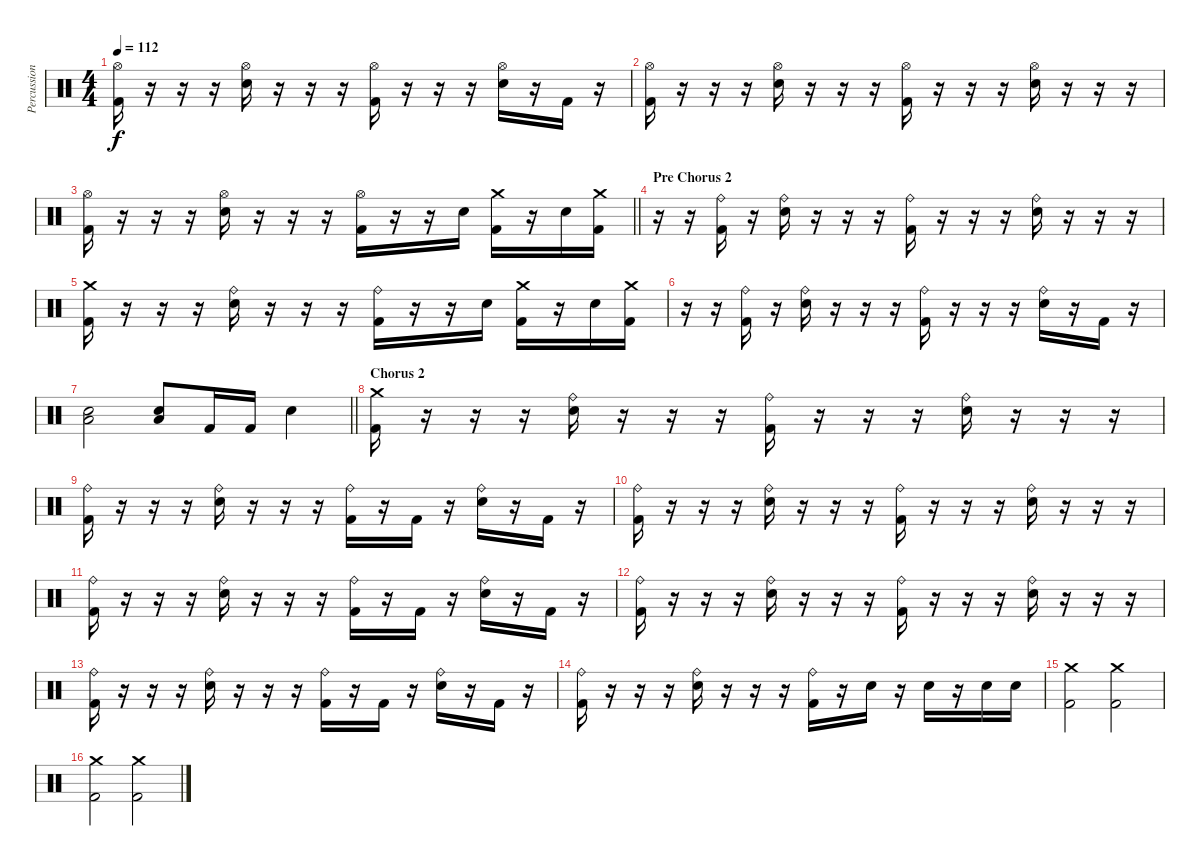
\track ("Percussioni" "Percussion") {instrument percussion}
\staff {score}
\articulation defaults
\ts (4 4)
\tempo 112
\clef neutral
\ks c
("Kick (hit) 2" "Hi-Hat (open)").16{dy f} r.16 r.16 r.16 ("Snare (hit) 2" "Hi-Hat (open)").16 r.16 r.16 r.16 ("Kick (hit) 2" "Hi-Hat (open)").16 r.16 r.16 r.16 ("Snare (hit) 2" "Hi-Hat (open)").16 r.16 "Kick (hit) 2".16 r.16 |
("Kick (hit) 2" "Hi-Hat (open)").16 r.16 r.16 r.16 ("Snare (hit) 2" "Hi-Hat (open)").16 r.16 r.16 r.16 ("Kick (hit) 2" "Hi-Hat (open)").16 r.16 r.16 r.16 ("Snare (hit) 2" "Hi-Hat (open)").16 r.16 r.16 r.16 |
\barLineRight lightlight
("Kick (hit) 2" "Hi-Hat (open)").16 r.16 r.16 r.16 ("Snare (hit) 2" "Hi-Hat (open)").16 r.16 r.16 r.16 ("Kick (hit) 2" "Hi-Hat (open)").16 r.16 r.16 "Snare (hit) 2".16 ("Kick (hit) 2" "Crash medium (hit)").16 r.16 "Snare (hit) 2".16 ("Kick (hit) 2" "Crash medium (hit)").16 |
\section ("" "Pre Chorus 2")
r.16 r.16 ("Kick (hit) 2" "Ride (bell)").16 r.16 ("Snare (hit) 2" "Ride (bell)").16 r.16 r.16 r.16 ("Kick (hit) 2" "Ride (bell)").16 r.16 r.16 r.16 ("Snare (hit) 2" "Ride (bell)").16 r.16 r.16 r.16 |
("Kick (hit) 2" "Crash medium (hit)").16 r.16 r.16 r.16 ("Snare (hit) 2" "Ride (bell)").16 r.16 r.16 r.16 ("Kick (hit) 2" "Ride (bell)").16 r.16 r.16 "Snare (hit) 2".16 ("Kick (hit) 2" "Crash medium (hit)").16 r.16 "Snare (hit) 2".16 ("Kick (hit) 2" "Crash medium (hit)").16 |
r.16 r.16 ("Kick (hit) 2" "Ride (bell)").16 r.16 ("Snare (hit) 2" "Ride (bell)").16 r.16 r.16 r.16 ("Kick (hit) 2" "Ride (bell)").16 r.16 r.16 r.16 ("Snare (hit) 2" "Ride (bell)").16 r.16 "Kick (hit) 2".16 r.16 |
\barLineRight lightlight
("Low Floor Tom (hit)" "Snare (hit) 2").2 ("Low Floor Tom (hit)" "Snare (hit) 2").8 "Kick (hit) 2".16 "Kick (hit) 2".16 "Snare (hit) 2".4 |
\section ("" "Chorus 2")
("Kick (hit) 2" "Crash medium (hit)").16 r.16 r.16 r.16 ("Snare (hit) 2" "Ride (bell)").16 r.16 r.16 r.16 ("Kick (hit) 2" "Ride (bell)").16 r.16 r.16 r.16 ("Snare (hit) 2" "Ride (bell)").16 r.16 r.16 r.16 |
("Kick (hit) 2" "Ride (bell)").16 r.16 r.16 r.16 ("Snare (hit) 2" "Ride (bell)").16 r.16 r.16 r.16 ("Kick (hit) 2" "Ride (bell)").16 r.16 "Kick (hit) 2".16 r.16 ("Snare (hit) 2" "Ride (bell)").16 r.16 "Kick (hit) 2".16 r.16 |
("Kick (hit) 2" "Ride (bell)").16 r.16 r.16 r.16 ("Snare (hit) 2" "Ride (bell)").16 r.16 r.16 r.16 ("Kick (hit) 2" "Ride (bell)").16 r.16 r.16 r.16 ("Snare (hit) 2" "Ride (bell)").16 r.16 r.16 r.16 |
("Kick (hit) 2" "Ride (bell)").16 r.16 r.16 r.16 ("Snare (hit) 2" "Ride (bell)").16 r.16 r.16 r.16 ("Kick (hit) 2" "Ride (bell)").16 r.16 "Kick (hit) 2".16 r.16 ("Snare (hit) 2" "Ride (bell)").16 r.16 "Kick (hit) 2".16 r.16 |
("Kick (hit) 2" "Ride (bell)").16 r.16 r.16 r.16 ("Snare (hit) 2" "Ride (bell)").16 r.16 r.16 r.16 ("Kick (hit) 2" "Ride (bell)").16 r.16 r.16 r.16 ("Snare (hit) 2" "Ride (bell)").16 r.16 r.16 r.16 |
("Kick (hit) 2" "Ride (bell)").16 r.16 r.16 r.16 ("Snare (hit) 2" "Ride (bell)").16 r.16 r.16 r.16 ("Kick (hit) 2" "Ride (bell)").16 r.16 "Kick (hit) 2".16 r.16 ("Snare (hit) 2" "Ride (bell)").16 r.16 "Kick (hit) 2".16 r.16 |
("Kick (hit) 2" "Ride (bell)").16 r.16 r.16 r.16 ("Snare (hit) 2" "Ride (bell)").16 r.16 r.16 r.16 ("Kick (hit) 2" "Ride (bell)").16 r.16 "Snare (hit) 2".16 r.16 "Snare (hit) 2".16 r.16 "Snare (hit) 2".16 "Snare (hit) 2".16 |
("Kick (hit) 2" "Crash medium (hit)").2 ("Kick (hit) 2" "Crash medium (hit)").2 |
("Kick (hit) 2" "Crash medium (hit)").2 ("Kick (hit) 2" "Crash medium (hit)").2
